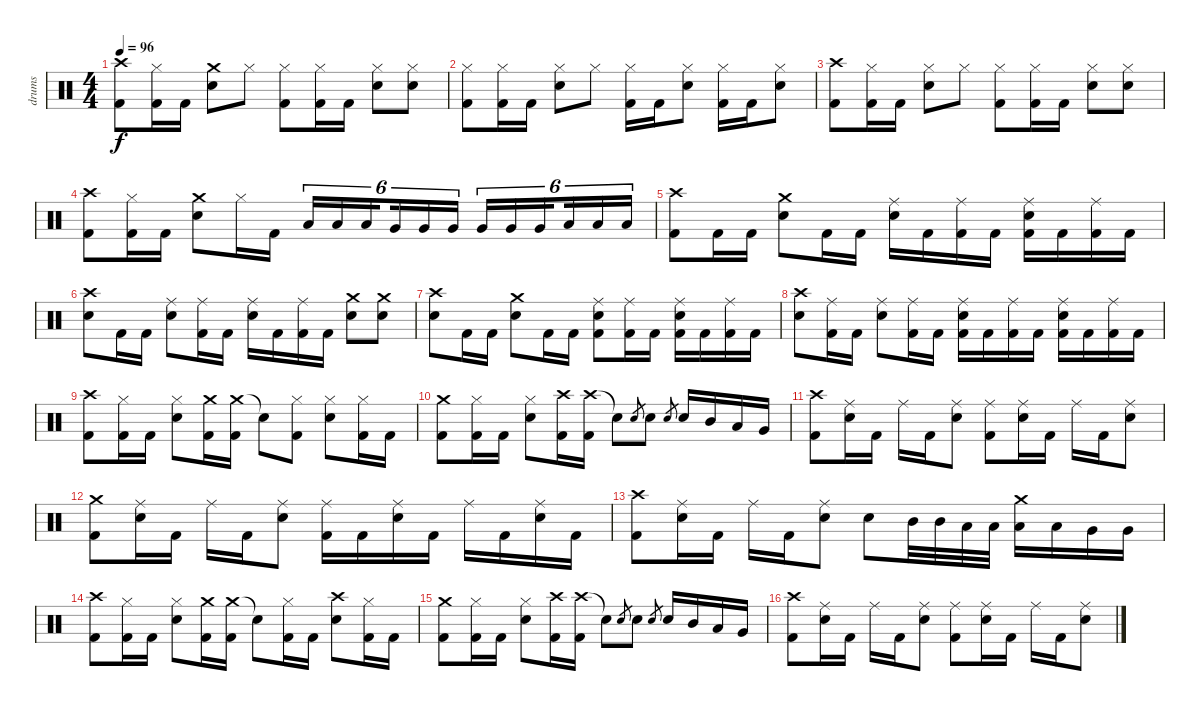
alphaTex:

\track ("drums" "drums") {instrument percussion}
\staff {score}
\articulation defaults
\ts (4 4)
\tempo 96
\clef neutral
\ks c
("Crash high (hit)" "Kick (hit) 2").8{dy f} ("Hi-Hat (closed)" "Kick (hit) 2").16 "Kick (hit) 2".16 ("Crash medium (hit)" "Electric Snare (hit)").8 "Hi-Hat (closed)".8 ("Hi-Hat (closed)" "Kick (hit) 2").8 ("Hi-Hat (closed)" "Kick (hit) 2").16 "Kick (hit) 2".16 ("Hi-Hat (closed)" "Electric Snare (hit)").8 ("Hi-Hat (closed)" "Electric Snare (hit)").8 |
("Hi-Hat (closed)" "Kick (hit) 2").8 ("Hi-Hat (closed)" "Kick (hit) 2").16 "Kick (hit) 2".16 ("Hi-Hat (closed)" "Electric Snare (hit)").8 "Hi-Hat (closed)".8 ("Hi-Hat (closed)" "Kick (hit) 2").16 "Kick (hit) 2".16 ("Hi-Hat (closed)" "Electric Snare (hit)").8 ("Hi-Hat (closed)" "Kick (hit) 2").16 "Kick (hit) 2".16 ("Hi-Hat (closed)" "Electric Snare (hit)").8 |
("Crash high (hit)" "Kick (hit) 2").8 ("Hi-Hat (closed)" "Kick (hit) 2").16 "Kick (hit) 2".16 ("Hi-Hat (closed)" "Electric Snare (hit)").8 "Hi-Hat (closed)".8 ("Hi-Hat (closed)" "Kick (hit) 2").8 ("Hi-Hat (closed)" "Kick (hit) 2").16 "Kick (hit) 2".16 ("Hi-Hat (closed)" "Electric Snare (hit)").8 ("Hi-Hat (closed)" "Electric Snare (hit)").8 |
("Crash high (hit)" "Kick (hit) 2").8 ("Hi-Hat (closed)" "Kick (hit) 2").16 "Kick (hit) 2".16 ("Crash medium (hit)" "Electric Snare (hit)").8 "Hi-Hat (closed)".16 "Kick (hit) 2".16 "Low Tom (hit)".16{tu (6 4)} "Low Tom (hit)".16{tu (6 4)} "Low Tom (hit)".16{tu (6 4) beam splitsecondary} "Very Low Tom (hit)".16{tu (6 4)} "Very Low Tom (hit)".16{tu (6 4)} "Very Low Tom (hit)".16{tu (6 4)} "Very Low Tom (hit)".16{tu (6 4)} "Very Low Tom (hit)".16{tu (6 4)} "Very Low Tom (hit)".16{tu (6 4) beam splitsecondary} "Low Floor Tom (hit)".16{tu (6 4)} "Low Floor Tom (hit)".16{tu (6 4)} "Low Floor Tom (hit)".16{tu (6 4)} |
("Crash high (hit)" "Kick (hit) 2").8 "Kick (hit) 2".16 "Kick (hit) 2".16 ("Crash medium (hit)" "Electric Snare (hit)").8 "Kick (hit) 2".16 "Kick (hit) 2".16 ("Ride (middle)" "Electric Snare (hit)").16 "Kick (hit) 2".16 ("Ride (middle)" "Kick (hit) 2").16 "Kick (hit) 2".16 ("Ride (middle)" "Electric Snare (hit)" "Kick (hit) 2").16 "Kick (hit) 2".16 ("Ride (middle)" "Kick (hit) 2").16 "Kick (hit) 2".16 |
("Crash high (hit)" "Electric Snare (hit)").8 "Kick (hit) 2".16 "Kick (hit) 2".16 ("Ride (middle)" "Electric Snare (hit)").8 ("Ride (middle)" "Kick (hit) 2").16 "Kick (hit) 2".16 ("Ride (middle)" "Electric Snare (hit)").16 "Kick (hit) 2".16 ("Ride (middle)" "Kick (hit) 2").16 "Kick (hit) 2".16 ("Crash medium (hit)" "Electric Snare (hit)").8 ("Crash medium (hit)" "Electric Snare (hit)").8 |
("Crash high (hit)" "Electric Snare (hit)").8 "Kick (hit) 2".16 "Kick (hit) 2".16 ("Crash medium (hit)" "Electric Snare (hit)").8 "Kick (hit) 2".16 "Kick (hit) 2".16 ("Ride (middle)" "Electric Snare (hit)" "Kick (hit) 2").8 ("Ride (middle)" "Kick (hit) 2").16 "Kick (hit) 2".16 ("Ride (middle)" "Electric Snare (hit)" "Kick (hit) 2").16 "Kick (hit) 2".16 ("Ride (middle)" "Kick (hit) 2").16 "Kick (hit) 2".16 |
("Crash high (hit)" "Electric Snare (hit)").8 ("Ride (middle)" "Kick (hit) 2").16 "Kick (hit) 2".16 ("Ride (middle)" "Electric Snare (hit)").8 ("Ride (middle)" "Kick (hit) 2").16 "Kick (hit) 2".16 ("Ride (middle)" "Electric Snare (hit)" "Kick (hit) 2").16 "Kick (hit) 2".16 ("Ride (middle)" "Kick (hit) 2").16 "Kick (hit) 2".16 ("Ride (middle)" "Electric Snare (hit)" "Kick (hit) 2").16 "Kick (hit) 2".16 ("Ride (middle)" "Kick (hit) 2").16 "Kick (hit) 2".16 |
("Crash high (hit)" "Kick (hit) 2").8 ("Hi-Hat (closed)" "Kick (hit) 2").16 "Kick (hit) 2".16 ("Hi-Hat (closed)" "Electric Snare (hit)").8 ("Crash medium (hit)" "Kick (hit) 2").16 ("Crash medium (hit)" "Kick (hit) 2").16 "Snare (hit)"{t}.8 ("Hi-Hat (closed)" "Kick (hit) 2").8 ("Hi-Hat (closed)" "Electric Snare (hit)").8 ("Hi-Hat (closed)" "Kick (hit) 2").16 "Kick (hit) 2".16 |
("Crash medium (hit)" "Kick (hit) 2").8 ("Hi-Hat (closed)" "Kick (hit) 2").16 "Kick (hit) 2".16 ("Hi-Hat (closed)" "Electric Snare (hit)").8 ("Crash high (hit)" "Kick (hit) 2").16 ("Crash high (hit)" "Kick (hit) 2").16 "Snare (hit)"{t}.8 "Electric Snare (hit)".8{gr} "Electric Snare (hit)".8 "Electric Snare (hit)".8{gr} "Electric Snare (hit)".16 "Mid Tom (hit)".16 "Low Tom (hit)".16 "Very Low Tom (hit)".16 |
("Crash high (hit)" "Kick (hit) 2").8 ("Ride (middle)" "Electric Snare (hit)").16 "Kick (hit) 2".16 "Ride (middle)".16 "Kick (hit) 2".16 ("Ride (middle)" "Electric Snare (hit)").8 ("Ride (middle)" "Kick (hit) 2").8 ("Ride (middle)" "Electric Snare (hit)").16 "Kick (hit) 2".16 "Ride (middle)".16 "Kick (hit) 2".16 ("Ride (middle)" "Electric Snare (hit)").8 |
("Crash medium (hit)" "Kick (hit) 2").8 ("Ride (middle)" "Electric Snare (hit)").16 "Kick (hit) 2".16 "Ride (middle)".16 "Kick (hit) 2".16 ("Ride (middle)" "Electric Snare (hit)").8 ("Ride (middle)" "Kick (hit) 2").16 "Kick (hit) 2".16 ("Ride (middle)" "Electric Snare (hit)").16 "Kick (hit) 2".16 "Ride (middle)".16 "Kick (hit) 2".16 ("Ride (middle)" "Electric Snare (hit)").16 "Kick (hit) 2".16 |
("Crash high (hit)" "Kick (hit) 2").8 ("Ride (middle)" "Electric Snare (hit)").16 "Kick (hit) 2".16 "Ride (middle)".16 "Kick (hit) 2".16 ("Ride (middle)" "Electric Snare (hit)").8 "Electric Snare (hit)".8 "Mid Tom (hit)".32 "Mid Tom (hit)".32 "Low Tom (hit)".32 "Low Tom (hit)".32 ("Crash medium (hit)" "Low Tom (hit)").16 "Low Tom (hit)".16 "Very Low Tom (hit)".16 "Very Low Tom (hit)".16 |
("Crash high (hit)" "Kick (hit) 2").8 ("Hi-Hat (closed)" "Kick (hit) 2").16 "Kick (hit) 2".16 ("Hi-Hat (closed)" "Electric Snare (hit)").8 ("Crash medium (hit)" "Kick (hit) 2").16 ("Crash medium (hit)" "Kick (hit) 2").16 "Snare (hit)"{t}.8 ("Hi-Hat (closed)" "Kick (hit) 2").16 "Kick (hit) 2".16 ("Crash high (hit)" "Electric Snare (hit)").8 ("Hi-Hat (closed)" "Kick (hit) 2").16 "Kick (hit) 2".16 |
("Crash medium (hit)" "Kick (hit) 2").8 ("Hi-Hat (closed)" "Kick (hit) 2").16 "Kick (hit) 2".16 ("Hi-Hat (closed)" "Electric Snare (hit)").8 ("Crash high (hit)" "Kick (hit) 2").16 ("Crash high (hit)" "Kick (hit) 2").16 "Snare (hit)"{t}.8 "Electric Snare (hit)".8{gr} "Electric Snare (hit)".8 "Electric Snare (hit)".8{gr} "Electric Snare (hit)".16 "Mid Tom (hit)".16 "Low Tom (hit)".16 "Very Low Tom (hit)".16 |
("Crash high (hit)" "Kick (hit) 2").8 ("Ride (middle)" "Electric Snare (hit)").16 "Kick (hit) 2".16 "Ride (middle)".16 "Kick (hit) 2".16 ("Ride (middle)" "Electric Snare (hit)").8 ("Ride (middle)" "Kick (hit) 2").8 ("Ride (middle)" "Electric Snare (hit)").16 "Kick (hit) 2".16 "Ride (middle)".16 "Kick (hit) 2".16 ("Ride (middle)" "Electric Snare (hit)").8
